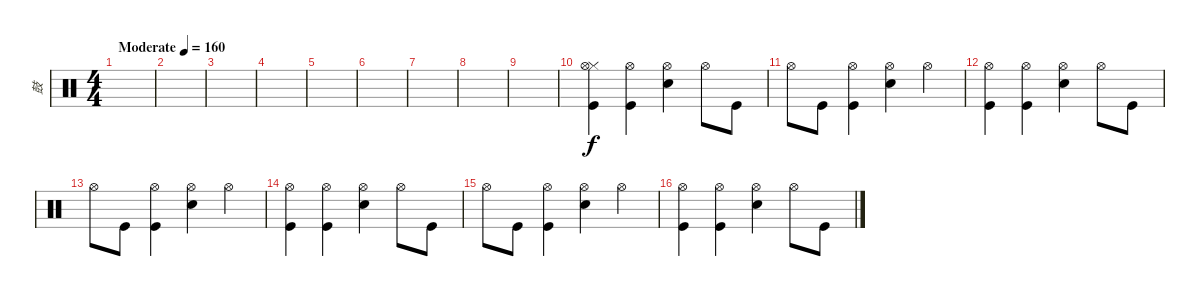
\track ("鼓" "鼓") {instrument percussion}
\staff {score}
\articulation defaults
\ts (4 4)
\tempo (160 "Moderate")
\clef neutral
\ks c
|
|
|
|
|
|
|
|
|
("Hi-Hat (closed)" "Hi-Hat (open)" "Kick (hit)").4 ("Hi-Hat (open)" "Kick (hit)").4 ("Hi-Hat (open)" "Electric Snare (hit)").4 "Hi-Hat (open)".8 "Kick (hit)".8 |
"Hi-Hat (open)".8 "Kick (hit)".8 ("Hi-Hat (open)" "Kick (hit)").4 ("Hi-Hat (open)" "Electric Snare (hit)").4 "Hi-Hat (open)".4 |
("Hi-Hat (open)" "Kick (hit)").4 ("Hi-Hat (open)" "Kick (hit)").4 ("Hi-Hat (open)" "Electric Snare (hit)").4 "Hi-Hat (open)".8 "Kick (hit)".8 |
"Hi-Hat (open)".8 "Kick (hit)".8 ("Hi-Hat (open)" "Kick (hit)").4 ("Hi-Hat (open)" "Electric Snare (hit)").4 "Hi-Hat (open)".4 |
("Hi-Hat (open)" "Kick (hit)").4 ("Hi-Hat (open)" "Kick (hit)").4 ("Hi-Hat (open)" "Electric Snare (hit)").4 "Hi-Hat (open)".8 "Kick (hit)".8 |
"Hi-Hat (open)".8 "Kick (hit)".8 ("Hi-Hat (open)" "Kick (hit)").4 ("Hi-Hat (open)" "Electric Snare (hit)").4 "Hi-Hat (open)".4 |
("Hi-Hat (open)" "Kick (hit)").4 ("Hi-Hat (open)" "Kick (hit)").4 ("Hi-Hat (open)" "Electric Snare (hit)").4 "Hi-Hat (open)".8 "Kick (hit)".8
